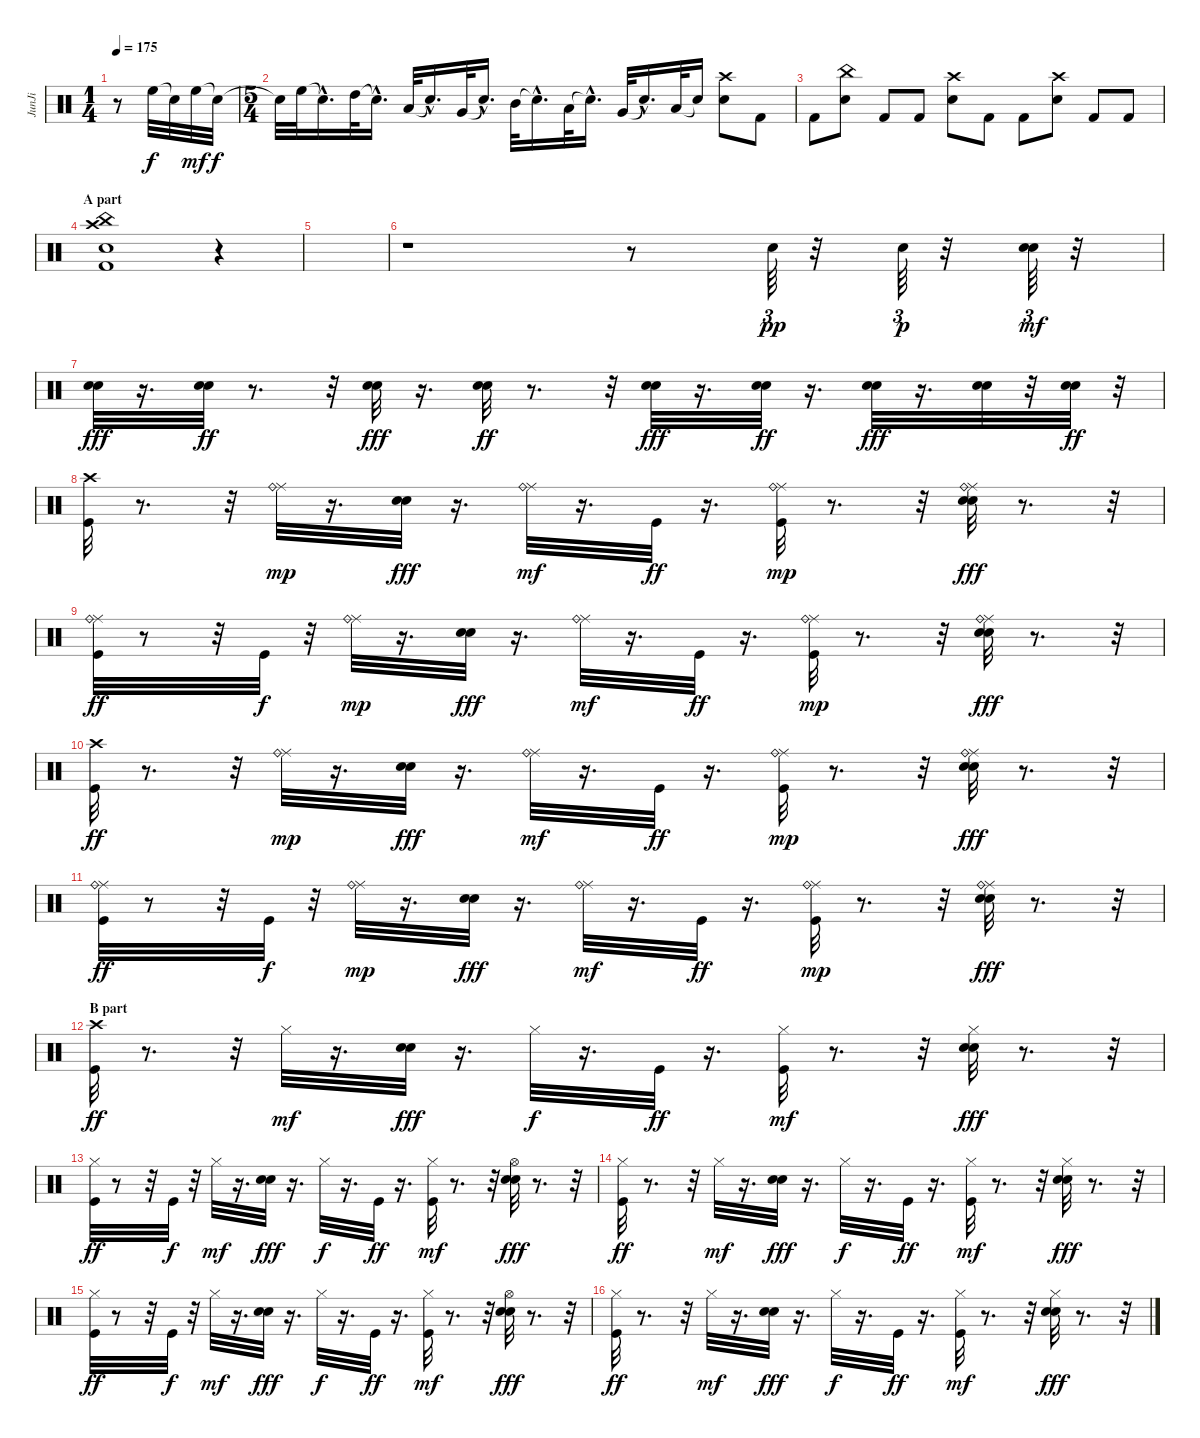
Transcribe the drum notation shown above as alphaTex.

\track ("JunJi" "JunJi") {instrument percussion}
\staff {score}
\articulation defaults
\ts (1 4)
\tempo 175
\clef neutral
\ks c
r.8{dy f volume 15} "High Floor Tom (hit)".32 "Snare (hit)"{t}.32 "High Floor Tom (hit)".32{dy mf} "Snare (hit)"{t}.32{dy f} |
\ts (5 4)
"Snare (hit)"{t}.32 "High Floor Tom (hit)".32 "Snare (hit)"{hac t}.16{d} "High Tom (hit)".32 "Snare (hit)"{hac t}.16{d} "Low Tom (hit)".32 "Snare (hit)"{hac t}.16{d} "Very Low Tom (hit)".32 "Snare (hit)"{hac t}.16{d} "Mid Tom (hit)".32 "Snare (hit)"{hac t}.16{d} "Low Tom (hit)".32 "Snare (hit)"{hac t}.16{d} "Very Low Tom (hit)".32 "Snare (hit)"{hac t}.16{d} "Low Floor Tom (hit)".32 "Snare (hit)"{t}.16 ("Crash high (hit)" "Snare (hit) 2").8 "Kick (hit) 2".8 |
"Kick (hit) 2".8 ("China (hit)" "Snare (hit) 2").8 "Kick (hit) 2".8 "Kick (hit) 2".8 ("Crash high (hit)" "Snare (hit) 2").8 "Kick (hit) 2".8 "Kick (hit) 2".8 ("Crash high (hit)" "Snare (hit) 2").8 "Kick (hit) 2".8 "Kick (hit) 2".8 |
\section ("" "A part")
("Crash high (hit)" "Snare (hit) 2" "China (hit)" "Kick (hit) 2").1 r.4 |
|
r.1 r.8 "Snare (hit) 2".64{tu (3 2) dy pp} r.32 "Snare (hit) 2".64{tu (3 2) dy p} r.32 ("Electric Snare (hit)" "Snare (hit) 2").64{tu (3 2) dy mf} r.32 |
("Electric Snare (hit)" "Snare (hit) 2").32{dy fff} r.16{d} ("Electric Snare (hit)" "Snare (hit) 2").32{dy ff} r.8{d} r.32 ("Electric Snare (hit)" "Snare (hit) 2").32{dy fff} r.16{d} ("Electric Snare (hit)" "Snare (hit) 2").32{dy ff} r.8{d} r.32 ("Electric Snare (hit)" "Snare (hit) 2").32{dy fff} r.16{d} ("Electric Snare (hit)" "Snare (hit) 2").32{dy ff} r.16{d} ("Electric Snare (hit)" "Snare (hit) 2").32{dy fff} r.16{d} ("Electric Snare (hit)" "Snare (hit) 2").32 r.32 ("Electric Snare (hit)" "Snare (hit) 2").32{dy ff} r.32 |
("Crash high (hit)" "Kick (hit)").32 r.8{d} r.32 ("Ride (middle)" "Ride (bell)").32{dy mp} r.16{d} ("Electric Snare (hit)" "Snare (hit) 2").32{dy fff} r.16{d} ("Ride (middle)" "Ride (bell)").32{dy mf} r.16{d} "Kick (hit)".32{dy ff} r.16{d} ("Ride (middle)" "Ride (bell)" "Kick (hit)").32{dy mp} r.8{d} r.32 ("Ride (middle)" "Ride (bell)" "Electric Snare (hit)" "Snare (hit) 2").32{dy fff} r.8{d} r.32 |
("Ride (middle)" "Ride (bell)" "Kick (hit)").32{dy ff} r.8 r.32 "Kick (hit)".32{dy f} r.32 ("Ride (middle)" "Ride (bell)").32{dy mp} r.16{d} ("Electric Snare (hit)" "Snare (hit) 2").32{dy fff} r.16{d} ("Ride (middle)" "Ride (bell)").32{dy mf} r.16{d} "Kick (hit)".32{dy ff} r.16{d} ("Ride (middle)" "Ride (bell)" "Kick (hit)").32{dy mp} r.8{d} r.32 ("Ride (middle)" "Ride (bell)" "Electric Snare (hit)" "Snare (hit) 2").32{dy fff} r.8{d} r.32 |
("Crash high (hit)" "Kick (hit)").32{dy ff} r.8{d} r.32 ("Ride (middle)" "Ride (bell)").32{dy mp} r.16{d} ("Electric Snare (hit)" "Snare (hit) 2").32{dy fff} r.16{d} ("Ride (middle)" "Ride (bell)").32{dy mf} r.16{d} "Kick (hit)".32{dy ff} r.16{d} ("Ride (middle)" "Ride (bell)" "Kick (hit)").32{dy mp} r.8{d} r.32 ("Ride (middle)" "Ride (bell)" "Electric Snare (hit)" "Snare (hit) 2").32{dy fff} r.8{d} r.32 |
("Ride (middle)" "Ride (bell)" "Kick (hit)").32{dy ff} r.8 r.32 "Kick (hit)".32{dy f} r.32 ("Ride (middle)" "Ride (bell)").32{dy mp} r.16{d} ("Electric Snare (hit)" "Snare (hit) 2").32{dy fff} r.16{d} ("Ride (middle)" "Ride (bell)").32{dy mf} r.16{d} "Kick (hit)".32{dy ff} r.16{d} ("Ride (middle)" "Ride (bell)" "Kick (hit)").32{dy mp} r.8{d} r.32 ("Ride (middle)" "Ride (bell)" "Electric Snare (hit)" "Snare (hit) 2").32{dy fff} r.8{d} r.32 |
\section ("" "B part")
("Crash high (hit)" "Kick (hit)").32{dy ff} r.8{d} r.32 "Hi-Hat (closed)".32{dy mf} r.16{d} ("Electric Snare (hit)" "Snare (hit) 2").32{dy fff} r.16{d} "Hi-Hat (closed)".32{dy f} r.16{d} "Kick (hit)".32{dy ff} r.16{d} ("Hi-Hat (closed)" "Kick (hit)").32{dy mf} r.8{d} r.32 ("Hi-Hat (closed)" "Electric Snare (hit)" "Snare (hit) 2").32{dy fff} r.8{d} r.32 |
("Hi-Hat (closed)" "Kick (hit)").32{dy ff} r.8 r.32 "Kick (hit)".32{dy f} r.32 "Hi-Hat (closed)".32{dy mf} r.16{d} ("Electric Snare (hit)" "Snare (hit) 2").32{dy fff} r.16{d} "Hi-Hat (closed)".32{dy f} r.16{d} "Kick (hit)".32{dy ff} r.16{d} ("Hi-Hat (closed)" "Kick (hit)").32{dy mf} r.8{d} r.32 ("Hi-Hat (open)" "Electric Snare (hit)" "Snare (hit) 2").32{dy fff} r.8{d} r.32 |
("Hi-Hat (closed)" "Kick (hit)").32{dy ff} r.8{d} r.32 "Hi-Hat (closed)".32{dy mf} r.16{d} ("Electric Snare (hit)" "Snare (hit) 2").32{dy fff} r.16{d} "Hi-Hat (closed)".32{dy f} r.16{d} "Kick (hit)".32{dy ff} r.16{d} ("Hi-Hat (closed)" "Kick (hit)").32{dy mf} r.8{d} r.32 ("Hi-Hat (closed)" "Electric Snare (hit)" "Snare (hit) 2").32{dy fff} r.8{d} r.32 |
("Hi-Hat (closed)" "Kick (hit)").32{dy ff} r.8 r.32 "Kick (hit)".32{dy f} r.32 "Hi-Hat (closed)".32{dy mf} r.16{d} ("Electric Snare (hit)" "Snare (hit) 2").32{dy fff} r.16{d} "Hi-Hat (closed)".32{dy f} r.16{d} "Kick (hit)".32{dy ff} r.16{d} ("Hi-Hat (closed)" "Kick (hit)").32{dy mf} r.8{d} r.32 ("Hi-Hat (open)" "Electric Snare (hit)" "Snare (hit) 2").32{dy fff} r.8{d} r.32 |
("Hi-Hat (closed)" "Kick (hit)").32{dy ff} r.8{d} r.32 "Hi-Hat (closed)".32{dy mf} r.16{d} ("Electric Snare (hit)" "Snare (hit) 2").32{dy fff} r.16{d} "Hi-Hat (closed)".32{dy f} r.16{d} "Kick (hit)".32{dy ff} r.16{d} ("Hi-Hat (closed)" "Kick (hit)").32{dy mf} r.8{d} r.32 ("Hi-Hat (closed)" "Electric Snare (hit)" "Snare (hit) 2").32{dy fff} r.8{d} r.32
